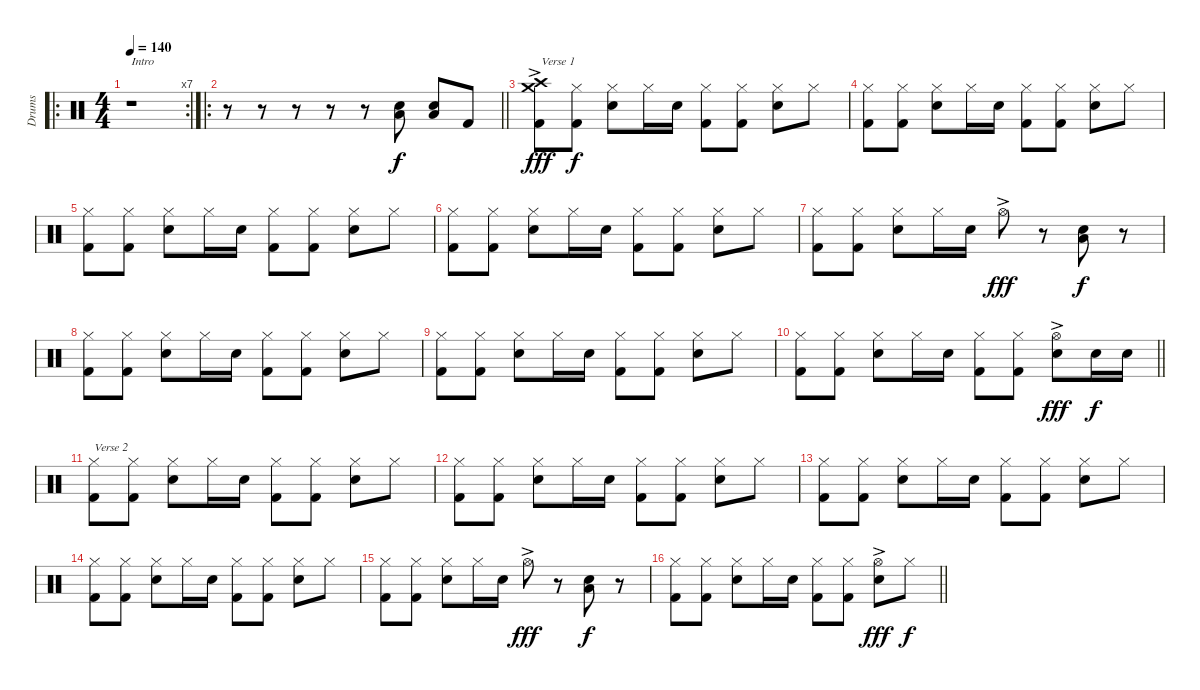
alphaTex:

\track ("Drums" "Drums") {instrument percussion}
\staff {score}
\articulation defaults
\ro
\rc 7
\ts (4 4)
\tempo 140
\clef neutral
\ks c
r.1{txt "Intro" dy f} |
\ro
\barLineRight lightlight
r.8 r.8 r.8 r.8 r.8 ("Electric Snare (hit)" "Low Floor Tom (hit)").8 ("Electric Snare (hit)" "Low Floor Tom (hit)").8 "Kick (hit) 2".8 |
("Crash medium (hit)"{ac} "Crash high (hit)"{ac} "Kick (hit) 2").8{txt "Verse 1" dy fff} ("Hi-Hat (closed)" "Kick (hit) 2").8{dy f} ("Hi-Hat (closed)" "Electric Snare (hit)").8 "Hi-Hat (closed)".16 "Electric Snare (hit)".16 ("Hi-Hat (closed)" "Kick (hit) 2").8 ("Hi-Hat (closed)" "Kick (hit) 2").8 ("Hi-Hat (closed)" "Electric Snare (hit)").8 "Hi-Hat (closed)".8 |
("Hi-Hat (closed)" "Kick (hit) 2").8 ("Hi-Hat (closed)" "Kick (hit) 2").8 ("Hi-Hat (closed)" "Electric Snare (hit)").8 "Hi-Hat (closed)".16 "Electric Snare (hit)".16 ("Hi-Hat (closed)" "Kick (hit) 2").8 ("Hi-Hat (closed)" "Kick (hit) 2").8 ("Hi-Hat (closed)" "Electric Snare (hit)").8 "Hi-Hat (closed)".8 |
("Hi-Hat (closed)" "Kick (hit) 2").8 ("Hi-Hat (closed)" "Kick (hit) 2").8 ("Hi-Hat (closed)" "Electric Snare (hit)").8 "Hi-Hat (closed)".16 "Electric Snare (hit)".16 ("Hi-Hat (closed)" "Kick (hit) 2").8 ("Hi-Hat (closed)" "Kick (hit) 2").8 ("Hi-Hat (closed)" "Electric Snare (hit)").8 "Hi-Hat (closed)".8 |
("Hi-Hat (closed)" "Kick (hit) 2").8 ("Hi-Hat (closed)" "Kick (hit) 2").8 ("Hi-Hat (closed)" "Electric Snare (hit)").8 "Hi-Hat (closed)".16 "Electric Snare (hit)".16 ("Hi-Hat (closed)" "Kick (hit) 2").8 ("Hi-Hat (closed)" "Kick (hit) 2").8 ("Hi-Hat (closed)" "Electric Snare (hit)").8 "Hi-Hat (closed)".8 |
("Hi-Hat (closed)" "Kick (hit) 2").8 ("Hi-Hat (closed)" "Kick (hit) 2").8 ("Hi-Hat (closed)" "Electric Snare (hit)").8 "Hi-Hat (closed)".16 "Electric Snare (hit)".16 "Hi-Hat (open)"{ac}.8{dy fff} r.8 ("Electric Snare (hit)" "Low Floor Tom (hit)").8{dy f} r.8 |
("Hi-Hat (closed)" "Kick (hit) 2").8 ("Hi-Hat (closed)" "Kick (hit) 2").8 ("Hi-Hat (closed)" "Electric Snare (hit)").8 "Hi-Hat (closed)".16 "Electric Snare (hit)".16 ("Hi-Hat (closed)" "Kick (hit) 2").8 ("Hi-Hat (closed)" "Kick (hit) 2").8 ("Hi-Hat (closed)" "Electric Snare (hit)").8 "Hi-Hat (closed)".8 |
("Hi-Hat (closed)" "Kick (hit) 2").8 ("Hi-Hat (closed)" "Kick (hit) 2").8 ("Hi-Hat (closed)" "Electric Snare (hit)").8 "Hi-Hat (closed)".16 "Electric Snare (hit)".16 ("Hi-Hat (closed)" "Kick (hit) 2").8 ("Hi-Hat (closed)" "Kick (hit) 2").8 ("Hi-Hat (closed)" "Electric Snare (hit)").8 "Hi-Hat (closed)".8 |
\barLineRight lightlight
("Hi-Hat (closed)" "Kick (hit) 2").8 ("Hi-Hat (closed)" "Kick (hit) 2").8 ("Hi-Hat (closed)" "Electric Snare (hit)").8 "Hi-Hat (closed)".16 "Electric Snare (hit)".16 ("Hi-Hat (closed)" "Kick (hit) 2").8 ("Hi-Hat (closed)" "Kick (hit) 2").8 ("Hi-Hat (open)"{ac} "Electric Snare (hit)").8{dy fff} "Electric Snare (hit)".16{dy f} "Electric Snare (hit)".16 |
("Hi-Hat (closed)" "Kick (hit) 2").8{txt "Verse 2"} ("Hi-Hat (closed)" "Kick (hit) 2").8 ("Hi-Hat (closed)" "Electric Snare (hit)").8 "Hi-Hat (closed)".16 "Electric Snare (hit)".16 ("Hi-Hat (closed)" "Kick (hit) 2").8 ("Hi-Hat (closed)" "Kick (hit) 2").8 ("Hi-Hat (closed)" "Electric Snare (hit)").8 "Hi-Hat (closed)".8 |
("Hi-Hat (closed)" "Kick (hit) 2").8 ("Hi-Hat (closed)" "Kick (hit) 2").8 ("Hi-Hat (closed)" "Electric Snare (hit)").8 "Hi-Hat (closed)".16 "Electric Snare (hit)".16 ("Hi-Hat (closed)" "Kick (hit) 2").8 ("Hi-Hat (closed)" "Kick (hit) 2").8 ("Hi-Hat (closed)" "Electric Snare (hit)").8 "Hi-Hat (closed)".8 |
("Hi-Hat (closed)" "Kick (hit) 2").8 ("Hi-Hat (closed)" "Kick (hit) 2").8 ("Hi-Hat (closed)" "Electric Snare (hit)").8 "Hi-Hat (closed)".16 "Electric Snare (hit)".16 ("Hi-Hat (closed)" "Kick (hit) 2").8 ("Hi-Hat (closed)" "Kick (hit) 2").8 ("Hi-Hat (closed)" "Electric Snare (hit)").8 "Hi-Hat (closed)".8 |
("Hi-Hat (closed)" "Kick (hit) 2").8 ("Hi-Hat (closed)" "Kick (hit) 2").8 ("Hi-Hat (closed)" "Electric Snare (hit)").8 "Hi-Hat (closed)".16 "Electric Snare (hit)".16 ("Hi-Hat (closed)" "Kick (hit) 2").8 ("Hi-Hat (closed)" "Kick (hit) 2").8 ("Hi-Hat (closed)" "Electric Snare (hit)").8 "Hi-Hat (closed)".8 |
("Hi-Hat (closed)" "Kick (hit) 2").8 ("Hi-Hat (closed)" "Kick (hit) 2").8 ("Hi-Hat (closed)" "Electric Snare (hit)").8 "Hi-Hat (closed)".16 "Electric Snare (hit)".16 "Hi-Hat (open)"{ac}.8{dy fff} r.8 ("Electric Snare (hit)" "Low Floor Tom (hit)").8{dy f} r.8 |
\barLineRight lightlight
("Hi-Hat (closed)" "Kick (hit) 2").8 ("Hi-Hat (closed)" "Kick (hit) 2").8 ("Hi-Hat (closed)" "Electric Snare (hit)").8 "Hi-Hat (closed)".16 "Electric Snare (hit)".16 ("Hi-Hat (closed)" "Kick (hit) 2").8 ("Hi-Hat (closed)" "Kick (hit) 2").8 ("Hi-Hat (open)"{ac} "Electric Snare (hit)").8{dy fff} "Hi-Hat (closed)".8{dy f}
